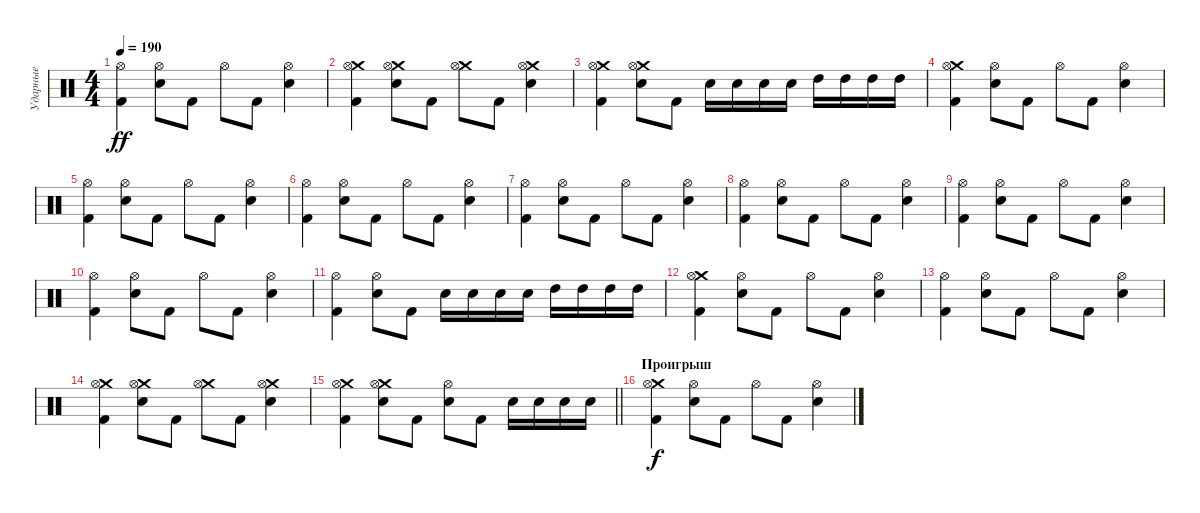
\track ("Ударные" "Ударные") {instrument percussion}
\staff {score}
\articulation defaults
\ts (4 4)
\tempo 190
\clef neutral
\ks c
("Kick (hit) 2" "Hi-Hat (open)").4{dy ff} ("Electric Snare (hit)" "Hi-Hat (open)").8 "Kick (hit) 2".8 "Hi-Hat (open)".8 "Kick (hit) 2".8 ("Electric Snare (hit)" "Hi-Hat (open)").4 |
("Crash medium (hit)" "Kick (hit) 2" "Hi-Hat (open)").4 ("Crash medium (hit)" "Electric Snare (hit)" "Hi-Hat (open)").8 "Kick (hit) 2".8 ("Crash medium (hit)" "Hi-Hat (open)").8 "Kick (hit) 2".8 ("Crash medium (hit)" "Electric Snare (hit)" "Hi-Hat (open)").4 |
("Crash medium (hit)" "Kick (hit) 2" "Hi-Hat (open)").4 ("Crash medium (hit)" "Electric Snare (hit)" "Hi-Hat (open)").8 "Kick (hit) 2".8 "Electric Snare (hit)".16 "Electric Snare (hit)".16 "Electric Snare (hit)".16 "Electric Snare (hit)".16 "High Tom (hit)".16 "High Tom (hit)".16 "High Tom (hit)".16 "High Tom (hit)".16 |
("Crash medium (hit)" "Kick (hit) 2" "Hi-Hat (open)").4 ("Electric Snare (hit)" "Hi-Hat (open)").8 "Kick (hit) 2".8 "Hi-Hat (open)".8 "Kick (hit) 2".8 ("Electric Snare (hit)" "Hi-Hat (open)").4 |
("Kick (hit) 2" "Hi-Hat (open)").4 ("Electric Snare (hit)" "Hi-Hat (open)").8 "Kick (hit) 2".8 "Hi-Hat (open)".8 "Kick (hit) 2".8 ("Electric Snare (hit)" "Hi-Hat (open)").4 |
("Kick (hit) 2" "Hi-Hat (open)").4 ("Electric Snare (hit)" "Hi-Hat (open)").8 "Kick (hit) 2".8 "Hi-Hat (open)".8 "Kick (hit) 2".8 ("Electric Snare (hit)" "Hi-Hat (open)").4 |
("Kick (hit) 2" "Hi-Hat (open)").4 ("Electric Snare (hit)" "Hi-Hat (open)").8 "Kick (hit) 2".8 "Hi-Hat (open)".8 "Kick (hit) 2".8 ("Electric Snare (hit)" "Hi-Hat (open)").4 |
("Kick (hit) 2" "Hi-Hat (open)").4 ("Electric Snare (hit)" "Hi-Hat (open)").8 "Kick (hit) 2".8 "Hi-Hat (open)".8 "Kick (hit) 2".8 ("Electric Snare (hit)" "Hi-Hat (open)").4 |
("Kick (hit) 2" "Hi-Hat (open)").4 ("Electric Snare (hit)" "Hi-Hat (open)").8 "Kick (hit) 2".8 "Hi-Hat (open)".8 "Kick (hit) 2".8 ("Electric Snare (hit)" "Hi-Hat (open)").4 |
("Kick (hit) 2" "Hi-Hat (open)").4 ("Electric Snare (hit)" "Hi-Hat (open)").8 "Kick (hit) 2".8 "Hi-Hat (open)".8 "Kick (hit) 2".8 ("Electric Snare (hit)" "Hi-Hat (open)").4 |
("Kick (hit) 2" "Hi-Hat (open)").4 ("Electric Snare (hit)" "Hi-Hat (open)").8 "Kick (hit) 2".8 "Electric Snare (hit)".16 "Electric Snare (hit)".16 "Electric Snare (hit)".16 "Electric Snare (hit)".16 "High Tom (hit)".16 "High Tom (hit)".16 "High Tom (hit)".16 "High Tom (hit)".16 |
("Crash medium (hit)" "Kick (hit) 2" "Hi-Hat (open)").4 ("Electric Snare (hit)" "Hi-Hat (open)").8 "Kick (hit) 2".8 "Hi-Hat (open)".8 "Kick (hit) 2".8 ("Electric Snare (hit)" "Hi-Hat (open)").4 |
("Kick (hit) 2" "Hi-Hat (open)").4 ("Electric Snare (hit)" "Hi-Hat (open)").8 "Kick (hit) 2".8 "Hi-Hat (open)".8 "Kick (hit) 2".8 ("Electric Snare (hit)" "Hi-Hat (open)").4 |
("Crash medium (hit)" "Kick (hit) 2" "Hi-Hat (open)").4 ("Crash medium (hit)" "Electric Snare (hit)" "Hi-Hat (open)").8 "Kick (hit) 2".8 ("Crash medium (hit)" "Hi-Hat (open)").8 "Kick (hit) 2".8 ("Crash medium (hit)" "Electric Snare (hit)" "Hi-Hat (open)").4 |
\barLineRight lightlight
("Crash medium (hit)" "Kick (hit) 2" "Hi-Hat (open)").4 ("Crash medium (hit)" "Electric Snare (hit)" "Hi-Hat (open)").8 "Kick (hit) 2".8 ("Electric Snare (hit)" "Hi-Hat (open)").8 "Kick (hit) 2".8 "Electric Snare (hit)".16 "Electric Snare (hit)".16 "Electric Snare (hit)".16 "Electric Snare (hit)".16 |
\section ("" "Проигрыш")
("Crash medium (hit)" "Kick (hit) 2" "Hi-Hat (open)").4{dy f} ("Electric Snare (hit)" "Hi-Hat (open)").8 "Kick (hit) 2".8 "Hi-Hat (open)".8 "Kick (hit) 2".8 ("Electric Snare (hit)" "Hi-Hat (open)").4
